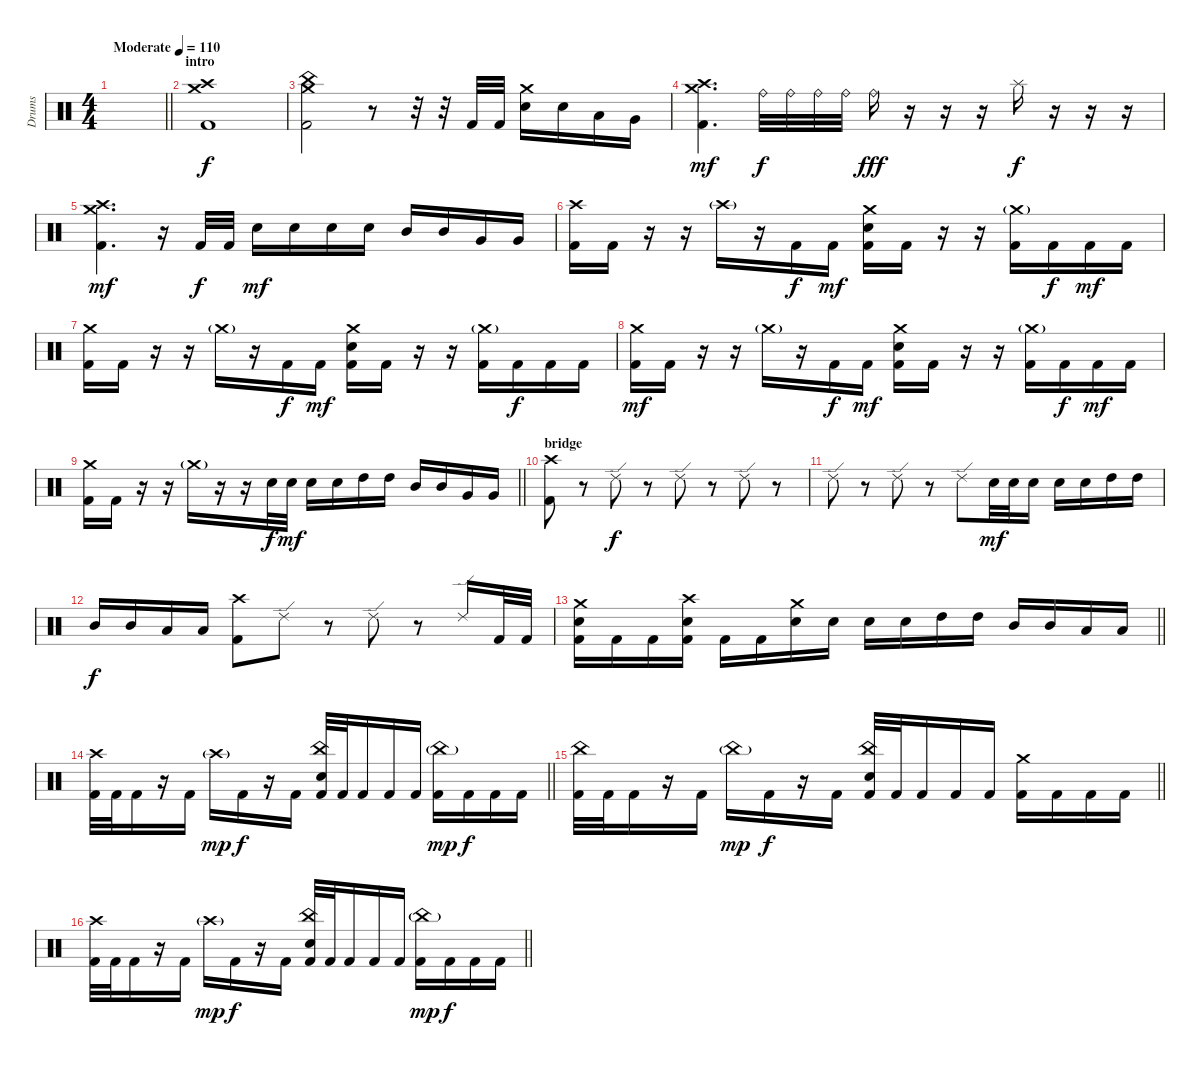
\track ("Drums" "Drums") {instrument percussion}
\staff {score}
\articulation defaults
\ts (4 4)
\tempo (110 "Moderate")
\clef neutral
\barLineRight lightlight
\ks c
|
\section ("" "intro")
("Crash high (hit)" "Crash medium (hit)" "Kick (hit) 2").1 |
("Crash medium (hit)" "China (hit)" "Kick (hit) 2").2 r.8 r.32 r.32 "Kick (hit) 2".32{dy f} "Kick (hit) 2".32 ("Crash medium (hit)" "Electric Snare (hit)").16 "Electric Snare (hit)".16 "Low Tom (hit)".16 "Very Low Tom (hit)".16 |
("Crash high (hit)" "Crash medium (hit)" "Kick (hit) 2").4{d dy mf} "Ride (bell)".32{dy f} "Ride (bell)".32 "Ride (bell)".32 "Ride (bell)".32 "Ride (bell)".16{dy fff} r.16 r.16 r.16 "Splash (hit)".16{dy f} r.16 r.16 r.16 |
("Crash high (hit)" "Crash medium (hit)" "Kick (hit) 2").4{d dy mf} r.16 "Kick (hit) 2".32{dy f} "Kick (hit) 2".32 "Electric Snare (hit)".16{dy mf} "Electric Snare (hit)".16 "Electric Snare (hit)".16 "Electric Snare (hit)".16 "Mid Tom (hit)".16 "Mid Tom (hit)".16 "Very Low Tom (hit)".16 "Very Low Tom (hit)".16 |
("Crash high (hit)" "Kick (hit) 2").16 "Kick (hit) 2".16 r.16 r.16 "Crash high (hit)"{g}.16 r.16 "Kick (hit) 2".16{dy f} "Kick (hit) 2".16{dy mf} ("Crash medium (hit)" "Electric Snare (hit)" "Kick (hit) 2").16 "Kick (hit) 2".16 r.16 r.16 ("Crash medium (hit)"{g} "Kick (hit) 2").16 "Kick (hit) 2".16{dy f} "Kick (hit) 2".16{dy mf} "Kick (hit) 2".16 |
("Crash medium (hit)" "Kick (hit) 2").16 "Kick (hit) 2".16 r.16 r.16 "Crash medium (hit)"{g}.16 r.16 "Kick (hit) 2".16{dy f} "Kick (hit) 2".16{dy mf} ("Crash medium (hit)" "Electric Snare (hit)" "Kick (hit) 2").16 "Kick (hit) 2".16 r.16 r.16 ("Crash medium (hit)"{g} "Kick (hit) 2").16 "Kick (hit) 2".16{dy f} "Kick (hit) 2".16 "Kick (hit) 2".16 |
("Crash medium (hit)" "Kick (hit) 2").16{dy mf} "Kick (hit) 2".16 r.16 r.16 "Crash medium (hit)"{g}.16 r.16 "Kick (hit) 2".16{dy f} "Kick (hit) 2".16{dy mf} ("Crash medium (hit)" "Electric Snare (hit)" "Kick (hit) 2").16 "Kick (hit) 2".16 r.16 r.16 ("Crash medium (hit)"{g} "Kick (hit) 2").16 "Kick (hit) 2".16{dy f} "Kick (hit) 2".16{dy mf} "Kick (hit) 2".16 |
\barLineRight lightlight
("Crash medium (hit)" "Kick (hit) 2").16 "Kick (hit) 2".16 r.16 r.16 "Crash medium (hit)"{g}.16 r.16 r.16 "Electric Snare (hit)".32{dy f} "Electric Snare (hit)".32{dy mf} "Electric Snare (hit)".16 "Electric Snare (hit)".16 "High Tom (hit)".16 "High Tom (hit)".16 "Mid Tom (hit)".16 "Mid Tom (hit)".16 "Very Low Tom (hit)".16 "Very Low Tom (hit)".16 |
\section ("" "bridge")
("Crash high (hit)" "Kick (hit) 2").8 r.8 "Ride (edge) 2".8{dy f} r.8 "Ride (edge) 2".8 r.8 "Ride (edge) 2".8 r.8 |
"Ride (edge) 2".8 r.8 "Ride (edge) 2".8 r.8 "Ride (edge) 2".8 "Electric Snare (hit)".32{dy mf} "Electric Snare (hit)".32 "Electric Snare (hit)".16 "Electric Snare (hit)".16 "Electric Snare (hit)".16 "High Tom (hit)".16 "High Tom (hit)".16 |
"Mid Tom (hit)".16{dy f} "Mid Tom (hit)".16 "Low Tom (hit)".16 "Low Tom (hit)".16 ("Crash high (hit)" "Kick (hit) 2").8 "Ride (edge) 2".8 r.8 "Ride (edge) 2".8 r.8 "Ride (edge) 2".16 "Kick (hit) 2".32 "Kick (hit) 2".32 |
\barLineRight lightlight
("Crash medium (hit)" "Electric Snare (hit)" "Kick (hit) 2").16 "Kick (hit) 2".16 "Kick (hit) 2".16 ("Crash high (hit)" "Electric Snare (hit)" "Kick (hit) 2").16 "Kick (hit) 2".16 "Kick (hit) 2".16 ("Crash medium (hit)" "Electric Snare (hit)").16 "Electric Snare (hit)".16 "Electric Snare (hit)".16 "Electric Snare (hit)".16 "High Tom (hit)".16 "High Tom (hit)".16 "Mid Tom (hit)".16 "Mid Tom (hit)".16 "Low Tom (hit)".16 "Low Tom (hit)".16 |
\barLineRight lightlight
("Crash high (hit)" "Kick (hit) 2").32 "Kick (hit) 2".32 "Kick (hit) 2".16 r.16 "Kick (hit) 2".16 "Crash high (hit)"{g}.16{dy mp} "Kick (hit) 2".16{dy f} r.16 "Kick (hit) 2".16 ("China (hit)" "Electric Snare (hit)" "Kick (hit) 2").32 "Kick (hit) 2".32 "Kick (hit) 2".16 "Kick (hit) 2".16 "Kick (hit) 2".16 ("China (hit)"{g} "Kick (hit) 2").16{dy mp} "Kick (hit) 2".16{dy f} "Kick (hit) 2".16 "Kick (hit) 2".16 |
\barLineRight lightlight
("China (hit)" "Kick (hit) 2").32 "Kick (hit) 2".32 "Kick (hit) 2".16 r.16 "Kick (hit) 2".16 "China (hit)"{g}.16{dy mp} "Kick (hit) 2".16{dy f} r.16 "Kick (hit) 2".16 ("China (hit)" "Electric Snare (hit)" "Kick (hit) 2").32 "Kick (hit) 2".32 "Kick (hit) 2".16 "Kick (hit) 2".16 "Kick (hit) 2".16 ("Crash medium (hit)" "Kick (hit) 2").16 "Kick (hit) 2".16 "Kick (hit) 2".16 "Kick (hit) 2".16 |
\barLineRight lightlight
("Crash high (hit)" "Kick (hit) 2").32 "Kick (hit) 2".32 "Kick (hit) 2".16 r.16 "Kick (hit) 2".16 "Crash high (hit)"{g}.16{dy mp} "Kick (hit) 2".16{dy f} r.16 "Kick (hit) 2".16 ("China (hit)" "Electric Snare (hit)" "Kick (hit) 2").32 "Kick (hit) 2".32 "Kick (hit) 2".16 "Kick (hit) 2".16 "Kick (hit) 2".16 ("China (hit)"{g} "Kick (hit) 2").16{dy mp} "Kick (hit) 2".16{dy f} "Kick (hit) 2".16 "Kick (hit) 2".16
